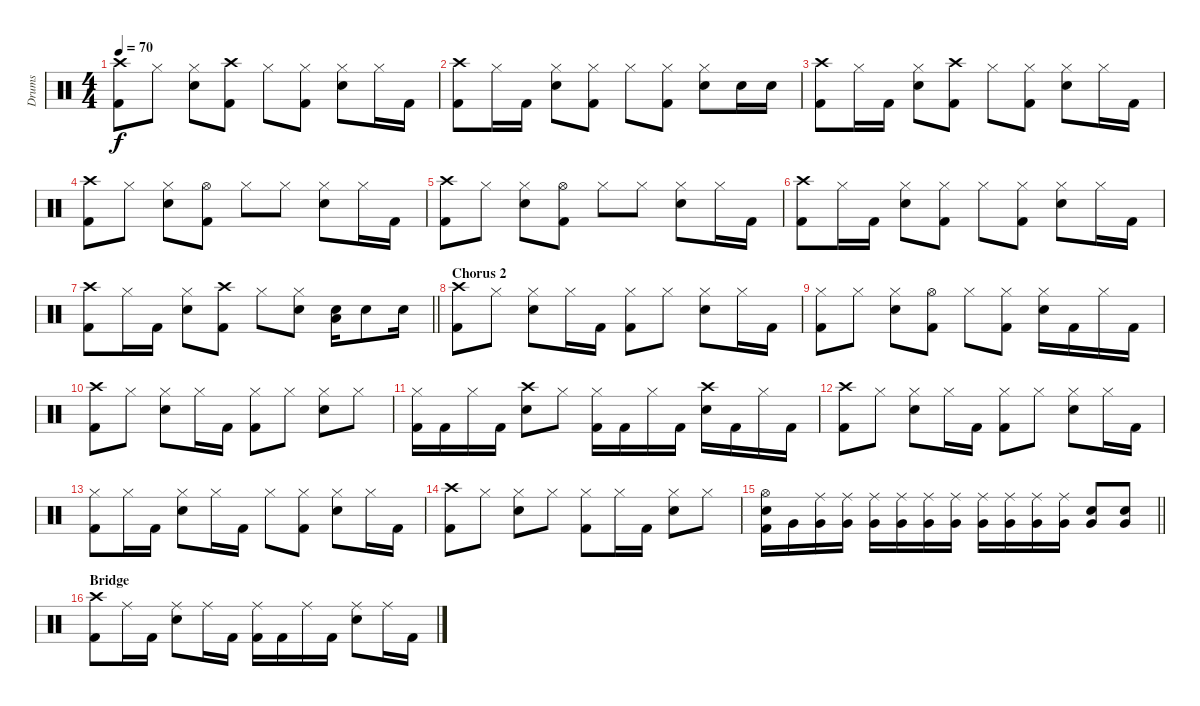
\track ("Drums" "Drums") {instrument percussion}
\staff {score}
\articulation defaults
\ts (4 4)
\tempo 70
\clef neutral
\ks c
("Crash high (hit)" "Kick (hit) 2").8{dy f} "Hi-Hat (closed)".8 ("Hi-Hat (closed)" "Snare (hit) 2").8 ("Crash high (hit)" "Kick (hit) 2").8 "Hi-Hat (closed)".8 ("Hi-Hat (closed)" "Kick (hit) 2").8 ("Hi-Hat (closed)" "Snare (hit) 2").8 "Hi-Hat (closed)".16 "Kick (hit) 2".16 |
("Crash high (hit)" "Kick (hit) 2").8 "Hi-Hat (closed)".16 "Kick (hit) 2".16 ("Hi-Hat (closed)" "Snare (hit) 2").8 ("Hi-Hat (closed)" "Kick (hit) 2").8 "Hi-Hat (closed)".8 ("Hi-Hat (closed)" "Kick (hit) 2").8 ("Hi-Hat (closed)" "Snare (hit) 2").8 "Snare (hit) 2".16 "Snare (hit) 2".16 |
("Crash high (hit)" "Kick (hit) 2").8 "Hi-Hat (closed)".16 "Kick (hit) 2".16 ("Hi-Hat (closed)" "Snare (hit) 2").8 ("Crash high (hit)" "Kick (hit) 2").8 "Hi-Hat (closed)".8 ("Hi-Hat (closed)" "Kick (hit) 2").8 ("Hi-Hat (closed)" "Snare (hit) 2").8 "Hi-Hat (closed)".16 "Kick (hit) 2".16 |
("Crash high (hit)" "Kick (hit) 2").8 "Hi-Hat (closed)".8 ("Hi-Hat (closed)" "Snare (hit) 2").8 ("Hi-Hat (open)" "Kick (hit) 2").8 "Hi-Hat (closed)".8 "Hi-Hat (closed)".8 ("Hi-Hat (closed)" "Snare (hit) 2").8 "Hi-Hat (closed)".16 "Kick (hit) 2".16 |
("Crash high (hit)" "Kick (hit) 2").8 "Hi-Hat (closed)".8 ("Hi-Hat (closed)" "Snare (hit) 2").8 ("Hi-Hat (open)" "Kick (hit) 2").8 "Hi-Hat (closed)".8 "Hi-Hat (closed)".8 ("Hi-Hat (closed)" "Snare (hit) 2").8 "Hi-Hat (closed)".16 "Kick (hit) 2".16 |
("Crash high (hit)" "Kick (hit) 2").8 "Hi-Hat (closed)".16 "Kick (hit) 2".16 ("Hi-Hat (closed)" "Snare (hit) 2").8 ("Hi-Hat (closed)" "Kick (hit) 2").8 "Hi-Hat (closed)".8 ("Hi-Hat (closed)" "Kick (hit) 2").8 ("Hi-Hat (closed)" "Snare (hit) 2").8 "Hi-Hat (closed)".16 "Kick (hit) 2".16 |
\barLineRight lightlight
("Crash high (hit)" "Kick (hit) 2").8 "Hi-Hat (closed)".16 "Kick (hit) 2".16 ("Hi-Hat (closed)" "Snare (hit) 2").8 ("Crash high (hit)" "Kick (hit) 2").8 "Hi-Hat (closed)".8 ("Hi-Hat (closed)" "Snare (hit) 2").8 ("Snare (hit) 2" "Low Tom (hit)").16 "Snare (hit) 2".8 "Snare (hit) 2".16 |
\section ("" "Chorus 2")
("Crash high (hit)" "Kick (hit) 2").8 "Hi-Hat (closed)".8 ("Hi-Hat (closed)" "Snare (hit) 2").8 "Hi-Hat (closed)".16 "Kick (hit) 2".16 ("Hi-Hat (closed)" "Kick (hit) 2").8 "Hi-Hat (closed)".8 ("Hi-Hat (closed)" "Snare (hit) 2").8 "Hi-Hat (closed)".16 "Kick (hit) 2".16 |
("Hi-Hat (closed)" "Kick (hit) 2").8 "Hi-Hat (closed)".8 ("Hi-Hat (closed)" "Snare (hit) 2").8 ("Hi-Hat (open)" "Kick (hit) 2").8 "Hi-Hat (closed)".8 ("Hi-Hat (closed)" "Kick (hit) 2").8 ("Hi-Hat (closed)" "Snare (hit) 2").16 "Kick (hit) 2".16 "Hi-Hat (closed)".16 "Kick (hit) 2".16 |
("Crash high (hit)" "Kick (hit) 2").8 "Hi-Hat (closed)".8 ("Hi-Hat (closed)" "Snare (hit) 2").8 "Hi-Hat (closed)".16 "Kick (hit) 2".16 ("Hi-Hat (closed)" "Kick (hit) 2").8 "Hi-Hat (closed)".8 ("Hi-Hat (closed)" "Snare (hit) 2").8 "Hi-Hat (closed)".8 |
("Hi-Hat (closed)" "Kick (hit) 2").16 "Kick (hit) 2".16 "Hi-Hat (closed)".16 "Kick (hit) 2".16 ("Crash high (hit)" "Snare (hit) 2").8 "Hi-Hat (closed)".8 ("Hi-Hat (closed)" "Kick (hit) 2").16 "Kick (hit) 2".16 "Hi-Hat (closed)".16 "Kick (hit) 2".16 ("Crash high (hit)" "Snare (hit) 2").16 "Kick (hit) 2".16 "Hi-Hat (closed)".16 "Kick (hit) 2".16 |
("Crash high (hit)" "Kick (hit) 2").8 "Hi-Hat (closed)".8 ("Hi-Hat (closed)" "Snare (hit) 2").8 "Hi-Hat (closed)".16 "Kick (hit) 2".16 ("Hi-Hat (closed)" "Kick (hit) 2").8 "Hi-Hat (closed)".8 ("Hi-Hat (closed)" "Snare (hit) 2").8 "Hi-Hat (closed)".16 "Kick (hit) 2".16 |
("Hi-Hat (closed)" "Kick (hit) 2").8 "Hi-Hat (closed)".16 "Kick (hit) 2".16 ("Hi-Hat (closed)" "Snare (hit) 2").8 "Hi-Hat (closed)".16 "Kick (hit) 2".16 "Hi-Hat (closed)".8 ("Hi-Hat (closed)" "Kick (hit) 2").8 ("Hi-Hat (closed)" "Snare (hit) 2").8 "Hi-Hat (closed)".16 "Kick (hit) 2".16 |
("Crash high (hit)" "Kick (hit) 2").8 "Hi-Hat (closed)".8 ("Hi-Hat (closed)" "Snare (hit) 2").8 "Hi-Hat (closed)".8 ("Hi-Hat (closed)" "Kick (hit) 2").8 "Hi-Hat (closed)".16 "Kick (hit) 2".16 ("Hi-Hat (closed)" "Snare (hit) 2").8 "Hi-Hat (closed)".8 |
\barLineRight lightlight
("Hi-Hat (open)" "Snare (hit) 2" "Kick (hit) 2").16 "Very Low Tom (hit)".16 ("Ride (middle)" "Very Low Tom (hit)").16 ("Ride (middle)" "Very Low Tom (hit)").16 ("Ride (middle)" "Very Low Tom (hit)").16 ("Ride (middle)" "Very Low Tom (hit)").16 ("Ride (middle)" "Very Low Tom (hit)").16 ("Ride (middle)" "Very Low Tom (hit)").16 ("Ride (middle)" "Very Low Tom (hit)").16 ("Ride (middle)" "Very Low Tom (hit)").16 ("Ride (middle)" "Very Low Tom (hit)").16 ("Ride (middle)" "Very Low Tom (hit)").16 ("Snare (hit) 2" "Very Low Tom (hit)").8 ("Snare (hit) 2" "Very Low Tom (hit)").8 |
\section ("" "Bridge")
("Crash high (hit)" "Kick (hit) 2").8 "Ride (middle)".16 "Kick (hit) 2".16 ("Ride (middle)" "Snare (hit) 2").8 "Ride (middle)".16 "Kick (hit) 2".16 ("Ride (middle)" "Kick (hit) 2").16 "Kick (hit) 2".16 "Ride (middle)".16 "Kick (hit) 2".16 ("Ride (middle)" "Snare (hit) 2").8 "Ride (middle)".16 "Kick (hit) 2".16
